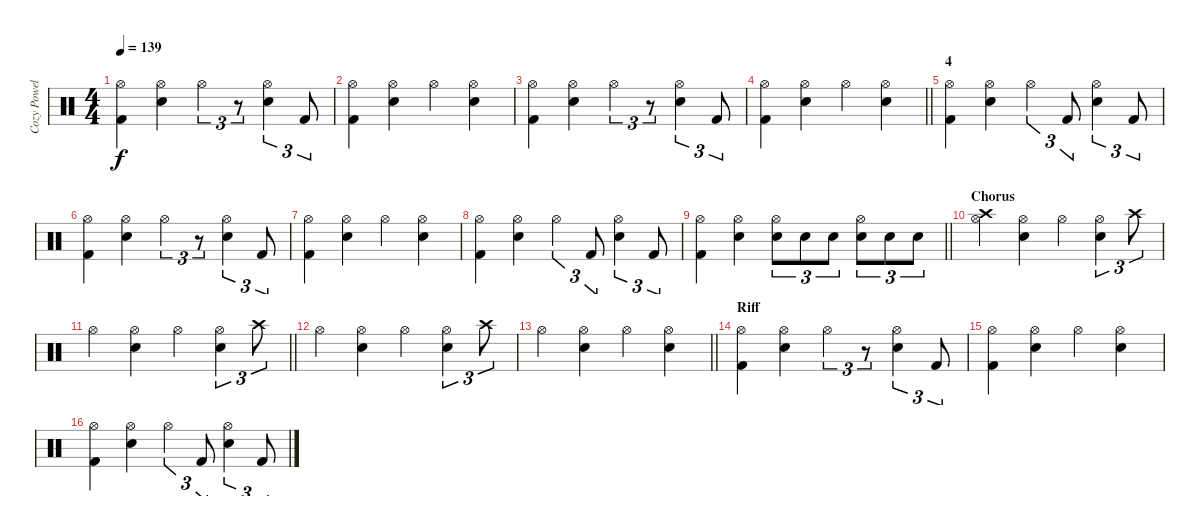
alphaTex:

\track ("Cozy Powell" "Cozy Powel") {instrument percussion}
\staff {score}
\articulation defaults
\ts (4 4)
\tempo 139
\clef neutral
\ks c
("Hi-Hat (open)" "Kick (hit) 2").4{dy f} ("Hi-Hat (open)" "Snare (hit) 2").4 "Hi-Hat (open)".4{tu (3 2)} r.8{tu (3 2)} ("Hi-Hat (open)" "Snare (hit) 2").4{tu (3 2)} "Kick (hit) 2".8{tu (3 2)} |
("Hi-Hat (open)" "Kick (hit) 2").4 ("Hi-Hat (open)" "Snare (hit) 2").4 "Hi-Hat (open)".4 ("Hi-Hat (open)" "Snare (hit) 2").4 |
("Hi-Hat (open)" "Kick (hit) 2").4 ("Hi-Hat (open)" "Snare (hit) 2").4 "Hi-Hat (open)".4{tu (3 2)} r.8{tu (3 2)} ("Hi-Hat (open)" "Snare (hit) 2").4{tu (3 2)} "Kick (hit) 2".8{tu (3 2)} |
\barLineRight lightlight
("Hi-Hat (open)" "Kick (hit) 2").4 ("Hi-Hat (open)" "Snare (hit) 2").4 "Hi-Hat (open)".4 ("Hi-Hat (open)" "Snare (hit) 2").4 |
\section ("" "4")
("Hi-Hat (open)" "Kick (hit) 2").4 ("Hi-Hat (open)" "Snare (hit) 2").4 "Hi-Hat (open)".4{tu (3 2)} "Kick (hit) 2".8{tu (3 2)} ("Hi-Hat (open)" "Snare (hit) 2").4{tu (3 2)} "Kick (hit) 2".8{tu (3 2)} |
("Hi-Hat (open)" "Kick (hit) 2").4 ("Hi-Hat (open)" "Snare (hit) 2").4 "Hi-Hat (open)".4{tu (3 2)} r.8{tu (3 2)} ("Hi-Hat (open)" "Snare (hit) 2").4{tu (3 2)} "Kick (hit) 2".8{tu (3 2)} |
("Hi-Hat (open)" "Kick (hit) 2").4 ("Hi-Hat (open)" "Snare (hit) 2").4 "Hi-Hat (open)".4 ("Hi-Hat (open)" "Snare (hit) 2").4 |
("Hi-Hat (open)" "Kick (hit) 2").4 ("Hi-Hat (open)" "Snare (hit) 2").4 "Hi-Hat (open)".4{tu (3 2)} "Kick (hit) 2".8{tu (3 2)} ("Hi-Hat (open)" "Snare (hit) 2").4{tu (3 2)} "Kick (hit) 2".8{tu (3 2)} |
\barLineRight lightlight
("Hi-Hat (open)" "Kick (hit) 2").4 ("Hi-Hat (open)" "Snare (hit) 2").4 ("Hi-Hat (open)" "Snare (hit) 2").8{tu (3 2)} "Snare (hit) 2".8{tu (3 2)} "Snare (hit) 2".8{tu (3 2)} ("Hi-Hat (open)" "Snare (hit) 2").8{tu (3 2)} "Snare (hit) 2".8{tu (3 2)} "Snare (hit) 2".8{tu (3 2)} |
\section ("" "Chorus")
("Hi-Hat (open)" "Crash high (hit)").4 ("Hi-Hat (open)" "Snare (hit) 2").4 "Hi-Hat (open)".4 ("Hi-Hat (open)" "Snare (hit) 2").4{tu (3 2)} "Crash high (hit)".8{tu (3 2)} |
\barLineRight lightlight "Hi-Hat (open)".4
("Hi-Hat (open)" "Snare (hit) 2").4 "Hi-Hat (open)".4 ("Hi-Hat (open)" "Snare (hit) 2").4{tu (3 2)} "Crash high (hit)".8{tu (3 2)} |
"Hi-Hat (open)".4 ("Hi-Hat (open)" "Snare (hit) 2").4 "Hi-Hat (open)".4 ("Hi-Hat (open)" "Snare (hit) 2").4{tu (3 2)} "Crash high (hit)".8{tu (3 2)} |
\barLineRight lightlight "Hi-Hat (open)".4
("Hi-Hat (open)" "Snare (hit) 2").4 "Hi-Hat (open)".4 ("Hi-Hat (open)" "Snare (hit) 2").4 |
\section ("" "Riff")
("Hi-Hat (open)" "Kick (hit) 2").4 ("Hi-Hat (open)" "Snare (hit) 2").4 "Hi-Hat (open)".4{tu (3 2)} r.8{tu (3 2)} ("Hi-Hat (open)" "Snare (hit) 2").4{tu (3 2)} "Kick (hit) 2".8{tu (3 2)} |
("Hi-Hat (open)" "Kick (hit) 2").4 ("Hi-Hat (open)" "Snare (hit) 2").4 "Hi-Hat (open)".4 ("Hi-Hat (open)" "Snare (hit) 2").4 |
("Hi-Hat (open)" "Kick (hit) 2").4 ("Hi-Hat (open)" "Snare (hit) 2").4 "Hi-Hat (open)".4{tu (3 2)} "Kick (hit) 2".8{tu (3 2)} ("Hi-Hat (open)" "Snare (hit) 2").4{tu (3 2)} "Kick (hit) 2".8{tu (3 2)}
